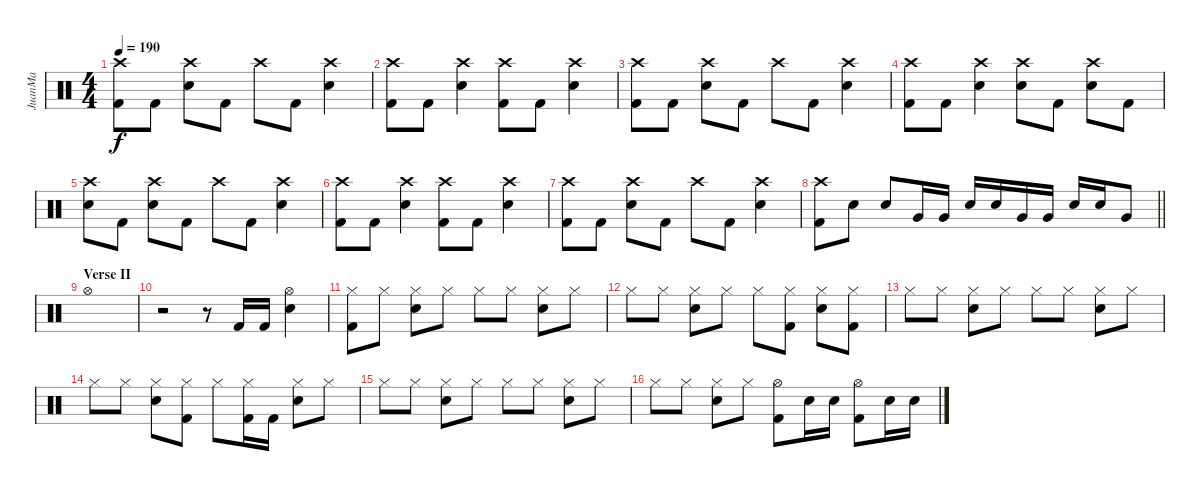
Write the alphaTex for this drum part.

\track ("JuanMa" "JuanMa") {instrument percussion}
\staff {score}
\articulation defaults
\ts (4 4)
\tempo 190
\clef neutral
\ks c
("Crash high (hit)" "Kick (hit) 2").8{dy f} "Kick (hit) 2".8 ("Crash high (hit)" "Electric Snare (hit)").8 "Kick (hit) 2".8 "Crash high (hit)".8 "Kick (hit) 2".8 ("Crash high (hit)" "Electric Snare (hit)").4 |
("Crash high (hit)" "Kick (hit) 2").8 "Kick (hit) 2".8 ("Crash high (hit)" "Electric Snare (hit)").4 ("Crash high (hit)" "Kick (hit) 2").8 "Kick (hit) 2".8 ("Crash high (hit)" "Electric Snare (hit)").4 |
("Crash high (hit)" "Kick (hit) 2").8 "Kick (hit) 2".8 ("Crash high (hit)" "Electric Snare (hit)").8 "Kick (hit) 2".8 "Crash high (hit)".8 "Kick (hit) 2".8 ("Crash high (hit)" "Electric Snare (hit)").4 |
("Crash high (hit)" "Kick (hit) 2").8 "Kick (hit) 2".8 ("Crash high (hit)" "Electric Snare (hit)").4 ("Crash high (hit)" "Electric Snare (hit)").8 "Kick (hit) 2".8 ("Crash high (hit)" "Electric Snare (hit)").8 "Kick (hit) 2".8 |
("Crash high (hit)" "Electric Snare (hit)").8 "Kick (hit) 2".8 ("Crash high (hit)" "Electric Snare (hit)").8 "Kick (hit) 2".8 "Crash high (hit)".8 "Kick (hit) 2".8 ("Crash high (hit)" "Electric Snare (hit)").4 |
("Crash high (hit)" "Kick (hit) 2").8 "Kick (hit) 2".8 ("Crash high (hit)" "Electric Snare (hit)").4 ("Crash high (hit)" "Kick (hit) 2").8 "Kick (hit) 2".8 ("Crash high (hit)" "Electric Snare (hit)").4 |
("Crash high (hit)" "Kick (hit) 2").8 "Kick (hit) 2".8 ("Crash high (hit)" "Electric Snare (hit)").8 "Kick (hit) 2".8 "Crash high (hit)".8 "Kick (hit) 2".8 ("Crash high (hit)" "Electric Snare (hit)").4 |
\barLineRight lightlight
("Crash high (hit)" "Kick (hit) 2").8 "Electric Snare (hit)".8 "Electric Snare (hit)".8 "Very Low Tom (hit)".16 "Very Low Tom (hit)".16 "Electric Snare (hit)".16 "Electric Snare (hit)".16 "Very Low Tom (hit)".16 "Very Low Tom (hit)".16 "Electric Snare (hit)".16 "Electric Snare (hit)".16 "Very Low Tom (hit)".8 |
\section ("" "Verse II")
"Hi-Hat (open)".1 |
r.2 r.8 "Kick (hit) 2".16 "Kick (hit) 2".16 ("Hi-Hat (open)" "Electric Snare (hit)").4 |
("Hi-Hat (closed)" "Kick (hit) 2").8 "Hi-Hat (closed)".8 ("Hi-Hat (closed)" "Electric Snare (hit)").8 "Hi-Hat (closed)".8 "Hi-Hat (closed)".8 "Hi-Hat (closed)".8 ("Hi-Hat (closed)" "Electric Snare (hit)").8 "Hi-Hat (closed)".8 |
"Hi-Hat (closed)".8 "Hi-Hat (closed)".8 ("Hi-Hat (closed)" "Electric Snare (hit)").8 "Hi-Hat (closed)".8 "Hi-Hat (closed)".8 ("Hi-Hat (closed)" "Kick (hit) 2").8 ("Hi-Hat (closed)" "Electric Snare (hit)").8 ("Hi-Hat (closed)" "Kick (hit) 2").8 |
"Hi-Hat (closed)".8 "Hi-Hat (closed)".8 ("Hi-Hat (closed)" "Electric Snare (hit)").8 "Hi-Hat (closed)".8 "Hi-Hat (closed)".8 "Hi-Hat (closed)".8 ("Hi-Hat (closed)" "Electric Snare (hit)").8 "Hi-Hat (closed)".8 |
"Hi-Hat (closed)".8 "Hi-Hat (closed)".8 ("Hi-Hat (closed)" "Electric Snare (hit)").8 ("Hi-Hat (closed)" "Kick (hit) 2").8 "Hi-Hat (closed)".8 ("Hi-Hat (closed)" "Kick (hit) 2").16 "Kick (hit) 2".16 ("Hi-Hat (closed)" "Electric Snare (hit)").8 "Hi-Hat (closed)".8 |
"Hi-Hat (closed)".8 "Hi-Hat (closed)".8 ("Hi-Hat (closed)" "Electric Snare (hit)").8 "Hi-Hat (closed)".8 "Hi-Hat (closed)".8 "Hi-Hat (closed)".8 ("Hi-Hat (closed)" "Electric Snare (hit)").8 "Hi-Hat (closed)".8 |
"Hi-Hat (closed)".8 "Hi-Hat (closed)".8 ("Hi-Hat (closed)" "Electric Snare (hit)").8 "Hi-Hat (closed)".8 ("Hi-Hat (open)" "Kick (hit) 2").8 "Electric Snare (hit)".16 "Electric Snare (hit)".16 ("Hi-Hat (open)" "Kick (hit) 2").8 "Electric Snare (hit)".16 "Electric Snare (hit)".16
